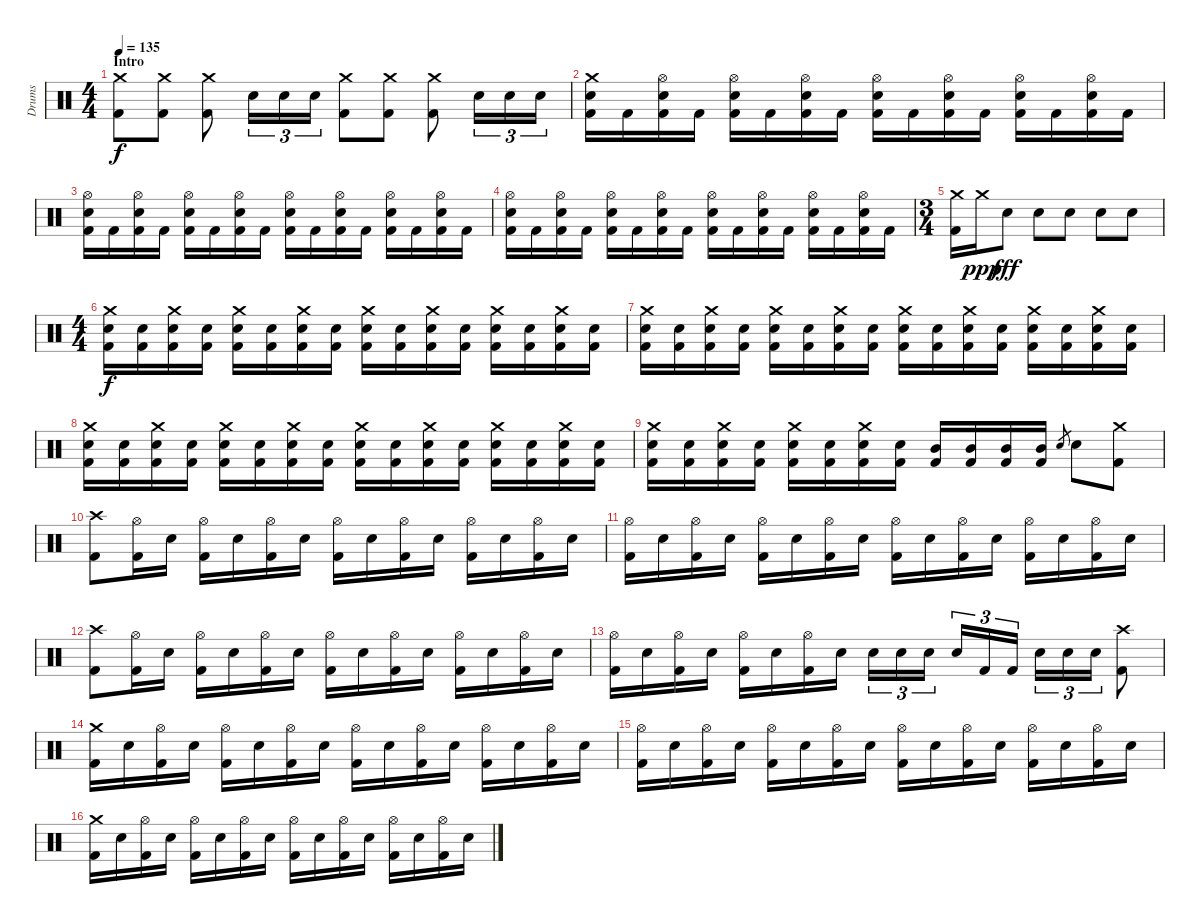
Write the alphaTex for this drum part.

\track ("Drums" "Drums") {instrument percussion}
\staff {score}
\articulation defaults
\ts (4 4)
\section ("" "Intro ")
\tempo 135
\clef neutral
\ks c
("Crash medium (hit)" "Kick (hit) 2").8{dy f} ("Crash medium (hit)" "Kick (hit) 2").8 ("Crash medium (hit)" "Kick (hit) 2").8 "Electric Snare (hit)".16{tu (3 2)} "Electric Snare (hit)".16{tu (3 2)} "Electric Snare (hit)".16{tu (3 2)} ("Crash medium (hit)" "Kick (hit) 2").8 ("Crash medium (hit)" "Kick (hit) 2").8 ("Crash medium (hit)" "Kick (hit) 2").8 "Electric Snare (hit)".16{tu (3 2)} "Electric Snare (hit)".16{tu (3 2)} "Electric Snare (hit)".16{tu (3 2)} |
("Crash medium (hit)" "Electric Snare (hit)" "Kick (hit) 2").16 "Kick (hit) 2".16 ("Hi-Hat (open)" "Electric Snare (hit)" "Kick (hit) 2").16 "Kick (hit) 2".16 ("Hi-Hat (open)" "Electric Snare (hit)" "Kick (hit) 2").16 "Kick (hit) 2".16 ("Hi-Hat (open)" "Electric Snare (hit)" "Kick (hit) 2").16 "Kick (hit) 2".16 ("Hi-Hat (open)" "Electric Snare (hit)" "Kick (hit) 2").16 "Kick (hit) 2".16 ("Hi-Hat (open)" "Electric Snare (hit)" "Kick (hit) 2").16 "Kick (hit) 2".16 ("Hi-Hat (open)" "Electric Snare (hit)" "Kick (hit) 2").16 "Kick (hit) 2".16 ("Hi-Hat (open)" "Electric Snare (hit)" "Kick (hit) 2").16 "Kick (hit) 2".16 |
("Hi-Hat (open)" "Electric Snare (hit)" "Kick (hit) 2").16 "Kick (hit) 2".16 ("Hi-Hat (open)" "Electric Snare (hit)" "Kick (hit) 2").16 "Kick (hit) 2".16 ("Hi-Hat (open)" "Electric Snare (hit)" "Kick (hit) 2").16 "Kick (hit) 2".16 ("Hi-Hat (open)" "Electric Snare (hit)" "Kick (hit) 2").16 "Kick (hit) 2".16 ("Hi-Hat (open)" "Electric Snare (hit)" "Kick (hit) 2").16 "Kick (hit) 2".16 ("Hi-Hat (open)" "Electric Snare (hit)" "Kick (hit) 2").16 "Kick (hit) 2".16 ("Hi-Hat (open)" "Electric Snare (hit)" "Kick (hit) 2").16 "Kick (hit) 2".16 ("Hi-Hat (open)" "Electric Snare (hit)" "Kick (hit) 2").16 "Kick (hit) 2".16 |
("Hi-Hat (open)" "Electric Snare (hit)" "Kick (hit) 2").16 "Kick (hit) 2".16 ("Hi-Hat (open)" "Electric Snare (hit)" "Kick (hit) 2").16 "Kick (hit) 2".16 ("Hi-Hat (open)" "Electric Snare (hit)" "Kick (hit) 2").16 "Kick (hit) 2".16 ("Hi-Hat (open)" "Electric Snare (hit)" "Kick (hit) 2").16 "Kick (hit) 2".16 ("Hi-Hat (open)" "Electric Snare (hit)" "Kick (hit) 2").16 "Kick (hit) 2".16 ("Hi-Hat (open)" "Electric Snare (hit)" "Kick (hit) 2").16 "Kick (hit) 2".16 ("Hi-Hat (open)" "Electric Snare (hit)" "Kick (hit) 2").16 "Kick (hit) 2".16 ("Hi-Hat (open)" "Electric Snare (hit)" "Kick (hit) 2").16 "Kick (hit) 2".16 |
\ts (3 4)
("Crash medium (hit)" "Kick (hit) 2").16 "Crash medium (hit)".16{dy ppp} "Electric Snare (hit)".8{dy fff} "Electric Snare (hit)".8 "Electric Snare (hit)".8 "Electric Snare (hit)".8 "Electric Snare (hit)".8 |
\ts (4 4)
("Crash medium (hit)" "Electric Snare (hit)" "Kick (hit) 2").16{dy f} ("Electric Snare (hit)" "Kick (hit) 2").16 ("Crash medium (hit)" "Electric Snare (hit)" "Kick (hit) 2").16 ("Electric Snare (hit)" "Kick (hit) 2").16 ("Crash medium (hit)" "Electric Snare (hit)" "Kick (hit) 2").16 ("Electric Snare (hit)" "Kick (hit) 2").16 ("Crash medium (hit)" "Electric Snare (hit)" "Kick (hit) 2").16 ("Electric Snare (hit)" "Kick (hit) 2").16 ("Crash medium (hit)" "Electric Snare (hit)" "Kick (hit) 2").16 ("Electric Snare (hit)" "Kick (hit) 2").16 ("Crash medium (hit)" "Electric Snare (hit)" "Kick (hit) 2").16 ("Electric Snare (hit)" "Kick (hit) 2").16 ("Crash medium (hit)" "Electric Snare (hit)" "Kick (hit) 2").16 ("Electric Snare (hit)" "Kick (hit) 2").16 ("Crash medium (hit)" "Electric Snare (hit)" "Kick (hit) 2").16 ("Electric Snare (hit)" "Kick (hit) 2").16 |
("Crash medium (hit)" "Electric Snare (hit)" "Kick (hit) 2").16 ("Electric Snare (hit)" "Kick (hit) 2").16 ("Crash medium (hit)" "Electric Snare (hit)" "Kick (hit) 2").16 ("Electric Snare (hit)" "Kick (hit) 2").16 ("Crash medium (hit)" "Electric Snare (hit)" "Kick (hit) 2").16 ("Electric Snare (hit)" "Kick (hit) 2").16 ("Crash medium (hit)" "Electric Snare (hit)" "Kick (hit) 2").16 ("Electric Snare (hit)" "Kick (hit) 2").16 ("Crash medium (hit)" "Electric Snare (hit)" "Kick (hit) 2").16 ("Electric Snare (hit)" "Kick (hit) 2").16 ("Crash medium (hit)" "Electric Snare (hit)" "Kick (hit) 2").16 ("Electric Snare (hit)" "Kick (hit) 2").16 ("Crash medium (hit)" "Electric Snare (hit)" "Kick (hit) 2").16 ("Electric Snare (hit)" "Kick (hit) 2").16 ("Crash medium (hit)" "Electric Snare (hit)" "Kick (hit) 2").16 ("Electric Snare (hit)" "Kick (hit) 2").16 |
("Crash medium (hit)" "Electric Snare (hit)" "Kick (hit) 2").16 ("Electric Snare (hit)" "Kick (hit) 2").16 ("Crash medium (hit)" "Electric Snare (hit)" "Kick (hit) 2").16 ("Electric Snare (hit)" "Kick (hit) 2").16 ("Crash medium (hit)" "Electric Snare (hit)" "Kick (hit) 2").16 ("Electric Snare (hit)" "Kick (hit) 2").16 ("Crash medium (hit)" "Electric Snare (hit)" "Kick (hit) 2").16 ("Electric Snare (hit)" "Kick (hit) 2").16 ("Crash medium (hit)" "Electric Snare (hit)" "Kick (hit) 2").16 ("Electric Snare (hit)" "Kick (hit) 2").16 ("Crash medium (hit)" "Electric Snare (hit)" "Kick (hit) 2").16 ("Electric Snare (hit)" "Kick (hit) 2").16 ("Crash medium (hit)" "Electric Snare (hit)" "Kick (hit) 2").16 ("Electric Snare (hit)" "Kick (hit) 2").16 ("Crash medium (hit)" "Electric Snare (hit)" "Kick (hit) 2").16 ("Electric Snare (hit)" "Kick (hit) 2").16 |
("Crash medium (hit)" "Electric Snare (hit)" "Kick (hit) 2").16 ("Electric Snare (hit)" "Kick (hit) 2").16 ("Crash medium (hit)" "Electric Snare (hit)" "Kick (hit) 2").16 ("Electric Snare (hit)" "Kick (hit) 2").16 ("Crash medium (hit)" "Electric Snare (hit)" "Kick (hit) 2").16 ("Electric Snare (hit)" "Kick (hit) 2").16 ("Crash medium (hit)" "Electric Snare (hit)" "Kick (hit) 2").16 ("Electric Snare (hit)" "Kick (hit) 2").16 ("Mid Tom (hit)" "Kick (hit) 2").16 ("Mid Tom (hit)" "Kick (hit) 2").16 ("Mid Tom (hit)" "Kick (hit) 2").16 ("Mid Tom (hit)" "Kick (hit) 2").16 "Electric Snare (hit)".8{gr} "Electric Snare (hit)".8 ("Crash medium (hit)" "Kick (hit) 2").8 |
("Crash high (hit)" "Kick (hit) 2").8 ("Hi-Hat (open)" "Kick (hit) 2").16 "Electric Snare (hit)".16 ("Hi-Hat (open)" "Kick (hit) 2").16 "Electric Snare (hit)".16 ("Hi-Hat (open)" "Kick (hit) 2").16 "Electric Snare (hit)".16 ("Hi-Hat (open)" "Kick (hit) 2").16 "Electric Snare (hit)".16 ("Hi-Hat (open)" "Kick (hit) 2").16 "Electric Snare (hit)".16 ("Hi-Hat (open)" "Kick (hit) 2").16 "Electric Snare (hit)".16 ("Hi-Hat (open)" "Kick (hit) 2").16 "Electric Snare (hit)".16 |
("Hi-Hat (open)" "Kick (hit) 2").16 "Electric Snare (hit)".16 ("Hi-Hat (open)" "Kick (hit) 2").16 "Electric Snare (hit)".16 ("Hi-Hat (open)" "Kick (hit) 2").16 "Electric Snare (hit)".16 ("Hi-Hat (open)" "Kick (hit) 2").16 "Electric Snare (hit)".16 ("Hi-Hat (open)" "Kick (hit) 2").16 "Electric Snare (hit)".16 ("Hi-Hat (open)" "Kick (hit) 2").16 "Electric Snare (hit)".16 ("Hi-Hat (open)" "Kick (hit) 2").16 "Electric Snare (hit)".16 ("Hi-Hat (open)" "Kick (hit) 2").16 "Electric Snare (hit)".16 |
("Crash high (hit)" "Kick (hit) 2").8 ("Hi-Hat (open)" "Kick (hit) 2").16 "Electric Snare (hit)".16 ("Hi-Hat (open)" "Kick (hit) 2").16 "Electric Snare (hit)".16 ("Hi-Hat (open)" "Kick (hit) 2").16 "Electric Snare (hit)".16 ("Hi-Hat (open)" "Kick (hit) 2").16 "Electric Snare (hit)".16 ("Hi-Hat (open)" "Kick (hit) 2").16 "Electric Snare (hit)".16 ("Hi-Hat (open)" "Kick (hit) 2").16 "Electric Snare (hit)".16 ("Hi-Hat (open)" "Kick (hit) 2").16 "Electric Snare (hit)".16 |
("Hi-Hat (open)" "Kick (hit) 2").16 "Electric Snare (hit)".16 ("Hi-Hat (open)" "Kick (hit) 2").16 "Electric Snare (hit)".16 ("Hi-Hat (open)" "Kick (hit) 2").16 "Electric Snare (hit)".16 ("Hi-Hat (open)" "Kick (hit) 2").16 "Electric Snare (hit)".16 "Electric Snare (hit)".16{tu (3 2)} "Electric Snare (hit)".16{tu (3 2)} "Electric Snare (hit)".16{tu (3 2)} "Electric Snare (hit)".16{tu (3 2)} "Kick (hit) 2".16{tu (3 2)} "Kick (hit) 2".16{tu (3 2)} "Electric Snare (hit)".16{tu (3 2)} "Electric Snare (hit)".16{tu (3 2)} "Electric Snare (hit)".16{tu (3 2)} ("Crash high (hit)" "Kick (hit) 2").8 |
("Crash medium (hit)" "Kick (hit) 2").16 "Electric Snare (hit)".16 ("Hi-Hat (open)" "Kick (hit) 2").16 "Electric Snare (hit)".16 ("Hi-Hat (open)" "Kick (hit) 2").16 "Electric Snare (hit)".16 ("Hi-Hat (open)" "Kick (hit) 2").16 "Electric Snare (hit)".16 ("Hi-Hat (open)" "Kick (hit) 2").16 "Electric Snare (hit)".16 ("Hi-Hat (open)" "Kick (hit) 2").16 "Electric Snare (hit)".16 ("Hi-Hat (open)" "Kick (hit) 2").16 "Electric Snare (hit)".16 ("Hi-Hat (open)" "Kick (hit) 2").16 "Electric Snare (hit)".16 |
("Hi-Hat (open)" "Kick (hit) 2").16 "Electric Snare (hit)".16 ("Hi-Hat (open)" "Kick (hit) 2").16 "Electric Snare (hit)".16 ("Hi-Hat (open)" "Kick (hit) 2").16 "Electric Snare (hit)".16 ("Hi-Hat (open)" "Kick (hit) 2").16 "Electric Snare (hit)".16 ("Hi-Hat (open)" "Kick (hit) 2").16 "Electric Snare (hit)".16 ("Hi-Hat (open)" "Kick (hit) 2").16 "Electric Snare (hit)".16 ("Hi-Hat (open)" "Kick (hit) 2").16 "Electric Snare (hit)".16 ("Hi-Hat (open)" "Kick (hit) 2").16 "Electric Snare (hit)".16 |
("Crash medium (hit)" "Kick (hit) 2").16 "Electric Snare (hit)".16 ("Hi-Hat (open)" "Kick (hit) 2").16 "Electric Snare (hit)".16 ("Hi-Hat (open)" "Kick (hit) 2").16 "Electric Snare (hit)".16 ("Hi-Hat (open)" "Kick (hit) 2").16 "Electric Snare (hit)".16 ("Hi-Hat (open)" "Kick (hit) 2").16 "Electric Snare (hit)".16 ("Hi-Hat (open)" "Kick (hit) 2").16 "Electric Snare (hit)".16 ("Hi-Hat (open)" "Kick (hit) 2").16 "Electric Snare (hit)".16 ("Hi-Hat (open)" "Kick (hit) 2").16 "Electric Snare (hit)".16
